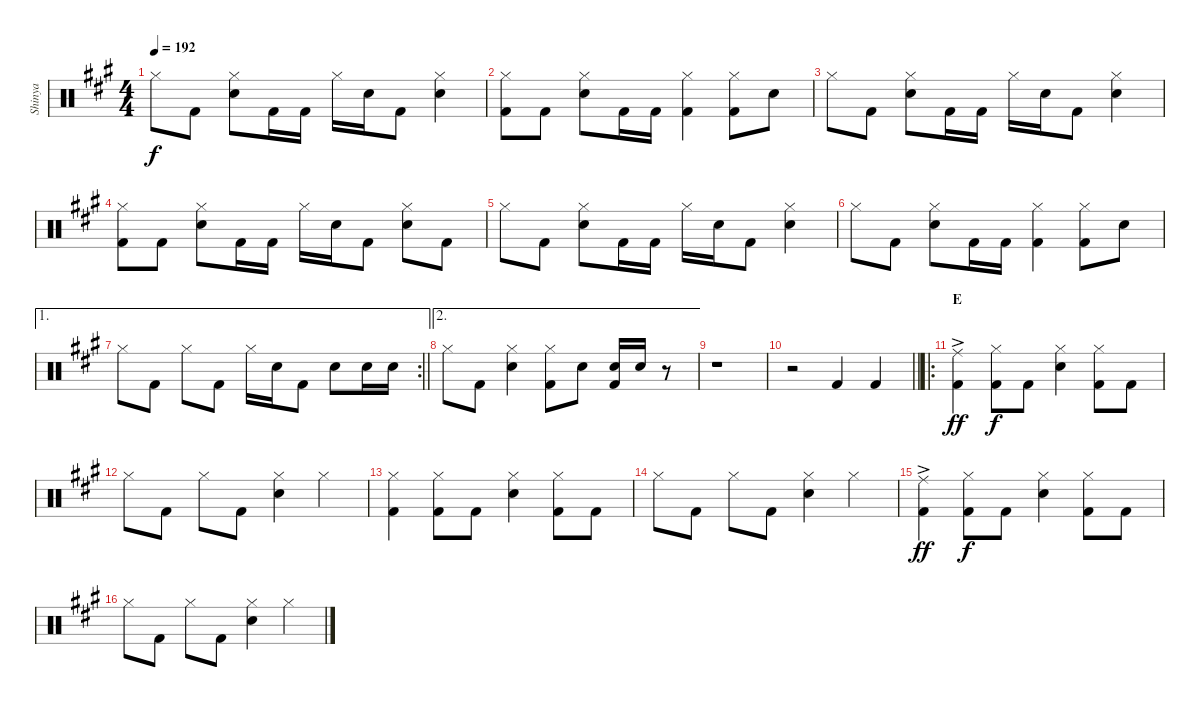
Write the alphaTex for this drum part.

\track ("Shinya" "Shinya") {instrument percussion}
\staff {score}
\articulation defaults
\ts (4 4)
\tempo 192
\clef neutral
\ks a "Hi-Hat (closed)".8{dy f} "Kick (hit) 2".8
("Hi-Hat (closed)" "Snare (hit) 2").8 "Kick (hit) 2".16 "Kick (hit) 2".16 "Hi-Hat (closed)".16 "Snare (hit) 2".16 "Kick (hit) 2".8 ("Hi-Hat (closed)" "Snare (hit) 2").4 |
("Hi-Hat (closed)" "Kick (hit) 2").8 "Kick (hit) 2".8 ("Hi-Hat (closed)" "Snare (hit) 2").8 "Kick (hit) 2".16 "Kick (hit) 2".16 ("Hi-Hat (closed)" "Kick (hit) 2").4 ("Hi-Hat (closed)" "Kick (hit) 2").8 "Snare (hit) 2".8 |
"Hi-Hat (closed)".8 "Kick (hit) 2".8 ("Hi-Hat (closed)" "Snare (hit) 2").8 "Kick (hit) 2".16 "Kick (hit) 2".16 "Hi-Hat (closed)".16 "Snare (hit) 2".16 "Kick (hit) 2".8 ("Hi-Hat (closed)" "Snare (hit) 2").4 |
("Hi-Hat (closed)" "Kick (hit) 2").8 "Kick (hit) 2".8 ("Hi-Hat (closed)" "Snare (hit) 2").8 "Kick (hit) 2".16 "Kick (hit) 2".16 "Hi-Hat (closed)".16 "Snare (hit) 2".16 "Kick (hit) 2".8 ("Hi-Hat (closed)" "Snare (hit) 2").8 "Kick (hit) 2".8 |
"Hi-Hat (closed)".8 "Kick (hit) 2".8 ("Hi-Hat (closed)" "Snare (hit) 2").8 "Kick (hit) 2".16 "Kick (hit) 2".16 "Hi-Hat (closed)".16 "Snare (hit) 2".16 "Kick (hit) 2".8 ("Hi-Hat (closed)" "Snare (hit) 2").4 |
"Hi-Hat (closed)".8 "Kick (hit) 2".8 ("Hi-Hat (closed)" "Snare (hit) 2").8 "Kick (hit) 2".16 "Kick (hit) 2".16 ("Hi-Hat (closed)" "Kick (hit) 2").4 ("Hi-Hat (closed)" "Kick (hit) 2").8 "Snare (hit) 2".8 |
\ae 1
\rc 2
\barLineRight lightlight "Hi-Hat (closed)".8 "Kick (hit) 2".8 "Hi-Hat (closed)".8 "Kick (hit) 2".8 "Hi-Hat (closed)".16 "Snare (hit) 2".16 "Kick (hit) 2".8 "Snare (hit) 2".8 "Snare (hit) 2".16 "Snare (hit) 2".16
|
\ae 2 "Hi-Hat (closed)".8 "Kick (hit) 2".8
("Hi-Hat (closed)" "Snare (hit) 2").4 ("Hi-Hat (closed)" "Kick (hit) 2").8 "Snare (hit) 2".8 ("Snare (hit) 2" "Kick (hit) 2").16 "Snare (hit) 2".16 r.8 |
r.1 |
\barLineRight lightlight
r.2 "Kick (hit) 2".4 "Kick (hit) 2".4 |
\ro
\section ("" "E")
("Ride (middle)"{ac} "Kick (hit) 2").4{dy ff} ("Hi-Hat (closed)" "Kick (hit) 2").8{dy f} "Kick (hit) 2".8 ("Hi-Hat (closed)" "Snare (hit) 2").4 ("Hi-Hat (closed)" "Kick (hit) 2").8 "Kick (hit) 2".8 |
"Hi-Hat (closed)".8 "Kick (hit) 2".8 "Hi-Hat (closed)".8 "Kick (hit) 2".8 ("Hi-Hat (closed)" "Snare (hit) 2").4 "Hi-Hat (closed)".4 |
("Hi-Hat (closed)" "Kick (hit) 2").4 ("Hi-Hat (closed)" "Kick (hit) 2").8 "Kick (hit) 2".8 ("Hi-Hat (closed)" "Snare (hit) 2").4 ("Hi-Hat (closed)" "Kick (hit) 2").8 "Kick (hit) 2".8 |
"Hi-Hat (closed)".8 "Kick (hit) 2".8 "Hi-Hat (closed)".8 "Kick (hit) 2".8 ("Hi-Hat (closed)" "Snare (hit) 2").4 "Hi-Hat (closed)".4 |
("Ride (middle)"{ac} "Kick (hit) 2").4{dy ff} ("Hi-Hat (closed)" "Kick (hit) 2").8{dy f} "Kick (hit) 2".8 ("Hi-Hat (closed)" "Snare (hit) 2").4 ("Hi-Hat (closed)" "Kick (hit) 2").8 "Kick (hit) 2".8 |
"Hi-Hat (closed)".8 "Kick (hit) 2".8 "Hi-Hat (closed)".8 "Kick (hit) 2".8 ("Hi-Hat (closed)" "Snare (hit) 2").4 "Hi-Hat (closed)".4
